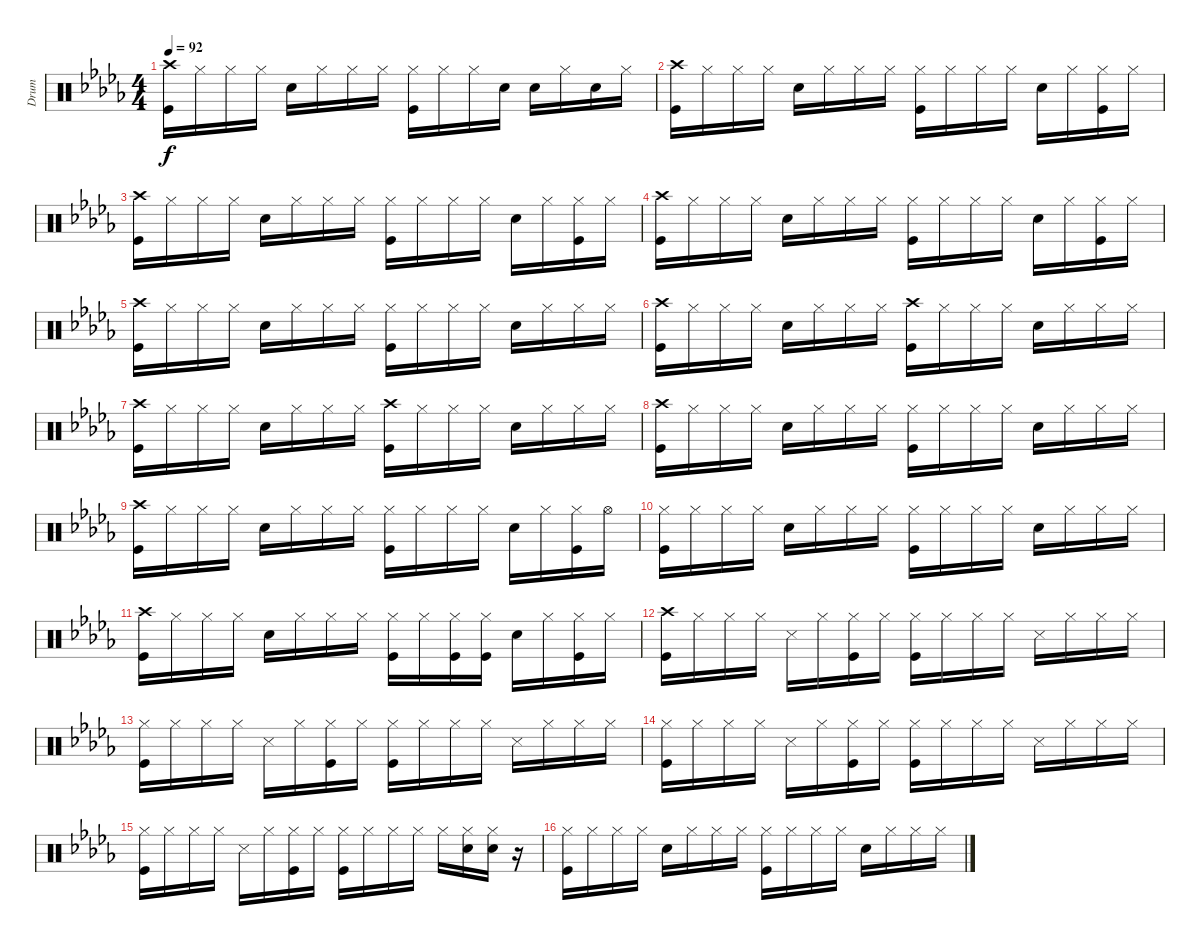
\track ("Drum" "Drum") {instrument percussion}
\staff {score}
\articulation defaults
\ts (4 4)
\tempo 92
\clef neutral
\ks db
("Crash high (hit)" "Kick (hit)").16{dy f} "Hi-Hat (closed)".16 "Hi-Hat (closed)".16 "Hi-Hat (closed)".16 "Snare (hit) 2".16 "Hi-Hat (closed)".16 "Hi-Hat (closed)".16 "Hi-Hat (closed)".16 ("Hi-Hat (closed)" "Kick (hit)").16 "Hi-Hat (closed)".16 "Hi-Hat (closed)".16 "Snare (hit) 2".16 "Snare (hit) 2".16 "Hi-Hat (closed)".16 "Snare (hit) 2".16 "Hi-Hat (closed)".16 |
("Crash high (hit)" "Kick (hit)").16 "Hi-Hat (closed)".16 "Hi-Hat (closed)".16 "Hi-Hat (closed)".16 "Snare (hit) 2".16 "Hi-Hat (closed)".16 "Hi-Hat (closed)".16 "Hi-Hat (closed)".16 ("Hi-Hat (closed)" "Kick (hit)").16 "Hi-Hat (closed)".16 "Hi-Hat (closed)".16 "Hi-Hat (closed)".16 "Snare (hit) 2".16 "Hi-Hat (closed)".16 ("Hi-Hat (closed)" "Kick (hit)").16 "Hi-Hat (closed)".16 |
("Crash high (hit)" "Kick (hit)").16 "Hi-Hat (closed)".16 "Hi-Hat (closed)".16 "Hi-Hat (closed)".16 "Snare (hit) 2".16 "Hi-Hat (closed)".16 "Hi-Hat (closed)".16 "Hi-Hat (closed)".16 ("Hi-Hat (closed)" "Kick (hit)").16 "Hi-Hat (closed)".16 "Hi-Hat (closed)".16 "Hi-Hat (closed)".16 "Snare (hit) 2".16 "Hi-Hat (closed)".16 ("Hi-Hat (closed)" "Kick (hit)").16 "Hi-Hat (closed)".16 |
("Crash high (hit)" "Kick (hit)").16 "Hi-Hat (closed)".16 "Hi-Hat (closed)".16 "Hi-Hat (closed)".16 "Snare (hit) 2".16 "Hi-Hat (closed)".16 "Hi-Hat (closed)".16 "Hi-Hat (closed)".16 ("Hi-Hat (closed)" "Kick (hit)").16 "Hi-Hat (closed)".16 "Hi-Hat (closed)".16 "Hi-Hat (closed)".16 "Snare (hit) 2".16 "Hi-Hat (closed)".16 ("Hi-Hat (closed)" "Kick (hit)").16 "Hi-Hat (closed)".16 |
("Crash high (hit)" "Kick (hit)").16 "Hi-Hat (closed)".16 "Hi-Hat (closed)".16 "Hi-Hat (closed)".16 "Snare (hit) 2".16 "Hi-Hat (closed)".16 "Hi-Hat (closed)".16 "Hi-Hat (closed)".16 ("Hi-Hat (closed)" "Kick (hit)").16 "Hi-Hat (closed)".16 "Hi-Hat (closed)".16 "Hi-Hat (closed)".16 "Snare (hit) 2".16 "Hi-Hat (closed)".16 "Hi-Hat (closed)".16 "Hi-Hat (closed)".16 |
("Crash high (hit)" "Kick (hit)").16 "Hi-Hat (closed)".16 "Hi-Hat (closed)".16 "Hi-Hat (closed)".16 "Snare (hit) 2".16 "Hi-Hat (closed)".16 "Hi-Hat (closed)".16 "Hi-Hat (closed)".16 ("Crash high (hit)" "Kick (hit)").16 "Hi-Hat (closed)".16 "Hi-Hat (closed)".16 "Hi-Hat (closed)".16 "Snare (hit) 2".16 "Hi-Hat (closed)".16 "Hi-Hat (closed)".16 "Hi-Hat (closed)".16 |
("Crash high (hit)" "Kick (hit)").16 "Hi-Hat (closed)".16 "Hi-Hat (closed)".16 "Hi-Hat (closed)".16 "Snare (hit) 2".16 "Hi-Hat (closed)".16 "Hi-Hat (closed)".16 "Hi-Hat (closed)".16 ("Crash high (hit)" "Kick (hit)").16 "Hi-Hat (closed)".16 "Hi-Hat (closed)".16 "Hi-Hat (closed)".16 "Snare (hit) 2".16 "Hi-Hat (closed)".16 "Hi-Hat (closed)".16 "Hi-Hat (closed)".16 |
("Crash high (hit)" "Kick (hit)").16 "Hi-Hat (closed)".16 "Hi-Hat (closed)".16 "Hi-Hat (closed)".16 "Snare (hit) 2".16 "Hi-Hat (closed)".16 "Hi-Hat (closed)".16 "Hi-Hat (closed)".16 ("Hi-Hat (closed)" "Kick (hit)").16 "Hi-Hat (closed)".16 "Hi-Hat (closed)".16 "Hi-Hat (closed)".16 "Snare (hit) 2".16 "Hi-Hat (closed)".16 "Hi-Hat (closed)".16 "Hi-Hat (closed)".16 |
("Crash high (hit)" "Kick (hit)").16 "Hi-Hat (closed)".16 "Hi-Hat (closed)".16 "Hi-Hat (closed)".16 "Snare (hit) 2".16 "Hi-Hat (closed)".16 "Hi-Hat (closed)".16 "Hi-Hat (closed)".16 ("Hi-Hat (closed)" "Kick (hit)").16 "Hi-Hat (closed)".16 "Hi-Hat (closed)".16 "Hi-Hat (closed)".16 "Snare (hit) 2".16 "Hi-Hat (closed)".16 ("Hi-Hat (closed)" "Kick (hit)").16 "Hi-Hat (open)".16 |
("Hi-Hat (closed)" "Kick (hit)").16 "Hi-Hat (closed)".16 "Hi-Hat (closed)".16 "Hi-Hat (closed)".16 "Snare (hit) 2".16 "Hi-Hat (closed)".16 "Hi-Hat (closed)".16 "Hi-Hat (closed)".16 ("Hi-Hat (closed)" "Kick (hit)").16 "Hi-Hat (closed)".16 "Hi-Hat (closed)".16 "Hi-Hat (closed)".16 "Snare (hit) 2".16 "Hi-Hat (closed)".16 "Hi-Hat (closed)".16 "Hi-Hat (closed)".16 |
("Crash high (hit)" "Kick (hit)").16 "Hi-Hat (closed)".16 "Hi-Hat (closed)".16 "Hi-Hat (closed)".16 "Snare (hit) 2".16 "Hi-Hat (closed)".16 "Hi-Hat (closed)".16 "Hi-Hat (closed)".16 ("Hi-Hat (closed)" "Kick (hit)").16 "Hi-Hat (closed)".16 ("Hi-Hat (closed)" "Kick (hit)").16 ("Hi-Hat (closed)" "Kick (hit)").16 "Snare (hit) 2".16 "Hi-Hat (closed)".16 ("Hi-Hat (closed)" "Kick (hit)").16 "Hi-Hat (closed)".16 |
("Crash high (hit)" "Kick (hit)").16 "Hi-Hat (closed)".16 "Hi-Hat (closed)".16 "Hi-Hat (closed)".16 "Snare (side stick) 3".16 "Hi-Hat (closed)".16 ("Hi-Hat (closed)" "Kick (hit)").16 "Hi-Hat (closed)".16 ("Hi-Hat (closed)" "Kick (hit)").16 "Hi-Hat (closed)".16 "Hi-Hat (closed)".16 "Hi-Hat (closed)".16 "Snare (side stick) 3".16 "Hi-Hat (closed)".16 "Hi-Hat (closed)".16 "Hi-Hat (closed)".16 |
("Hi-Hat (closed)" "Kick (hit)").16 "Hi-Hat (closed)".16 "Hi-Hat (closed)".16 "Hi-Hat (closed)".16 "Snare (side stick) 3".16 "Hi-Hat (closed)".16 ("Hi-Hat (closed)" "Kick (hit)").16 "Hi-Hat (closed)".16 ("Hi-Hat (closed)" "Kick (hit)").16 "Hi-Hat (closed)".16 "Hi-Hat (closed)".16 "Hi-Hat (closed)".16 "Snare (side stick) 3".16 "Hi-Hat (closed)".16 "Hi-Hat (closed)".16 "Hi-Hat (closed)".16 |
("Hi-Hat (closed)" "Kick (hit)").16 "Hi-Hat (closed)".16 "Hi-Hat (closed)".16 "Hi-Hat (closed)".16 "Snare (side stick) 3".16 "Hi-Hat (closed)".16 ("Hi-Hat (closed)" "Kick (hit)").16 "Hi-Hat (closed)".16 ("Hi-Hat (closed)" "Kick (hit)").16 "Hi-Hat (closed)".16 "Hi-Hat (closed)".16 "Hi-Hat (closed)".16 "Snare (side stick) 3".16 "Hi-Hat (closed)".16 "Hi-Hat (closed)".16 "Hi-Hat (closed)".16 |
("Hi-Hat (closed)" "Kick (hit)").16 "Hi-Hat (closed)".16 "Hi-Hat (closed)".16 "Hi-Hat (closed)".16 "Snare (side stick) 3".16 "Hi-Hat (closed)".16 ("Hi-Hat (closed)" "Kick (hit)").16 "Hi-Hat (closed)".16 ("Hi-Hat (closed)" "Kick (hit)").16 "Hi-Hat (closed)".16 "Hi-Hat (closed)".16 "Hi-Hat (closed)".16 "Hi-Hat (closed)".16 ("Hi-Hat (closed)" "Snare (hit) 2").16 ("Hi-Hat (closed)" "Snare (hit) 2").16 r.16 |
("Hi-Hat (closed)" "Kick (hit)").16 "Hi-Hat (closed)".16 "Hi-Hat (closed)".16 "Hi-Hat (closed)".16 "Snare (hit) 2".16 "Hi-Hat (closed)".16 "Hi-Hat (closed)".16 "Hi-Hat (closed)".16 ("Hi-Hat (closed)" "Kick (hit)").16 "Hi-Hat (closed)".16 "Hi-Hat (closed)".16 "Hi-Hat (closed)".16 "Snare (hit) 2".16 "Hi-Hat (closed)".16 "Hi-Hat (closed)".16 "Hi-Hat (closed)".16
